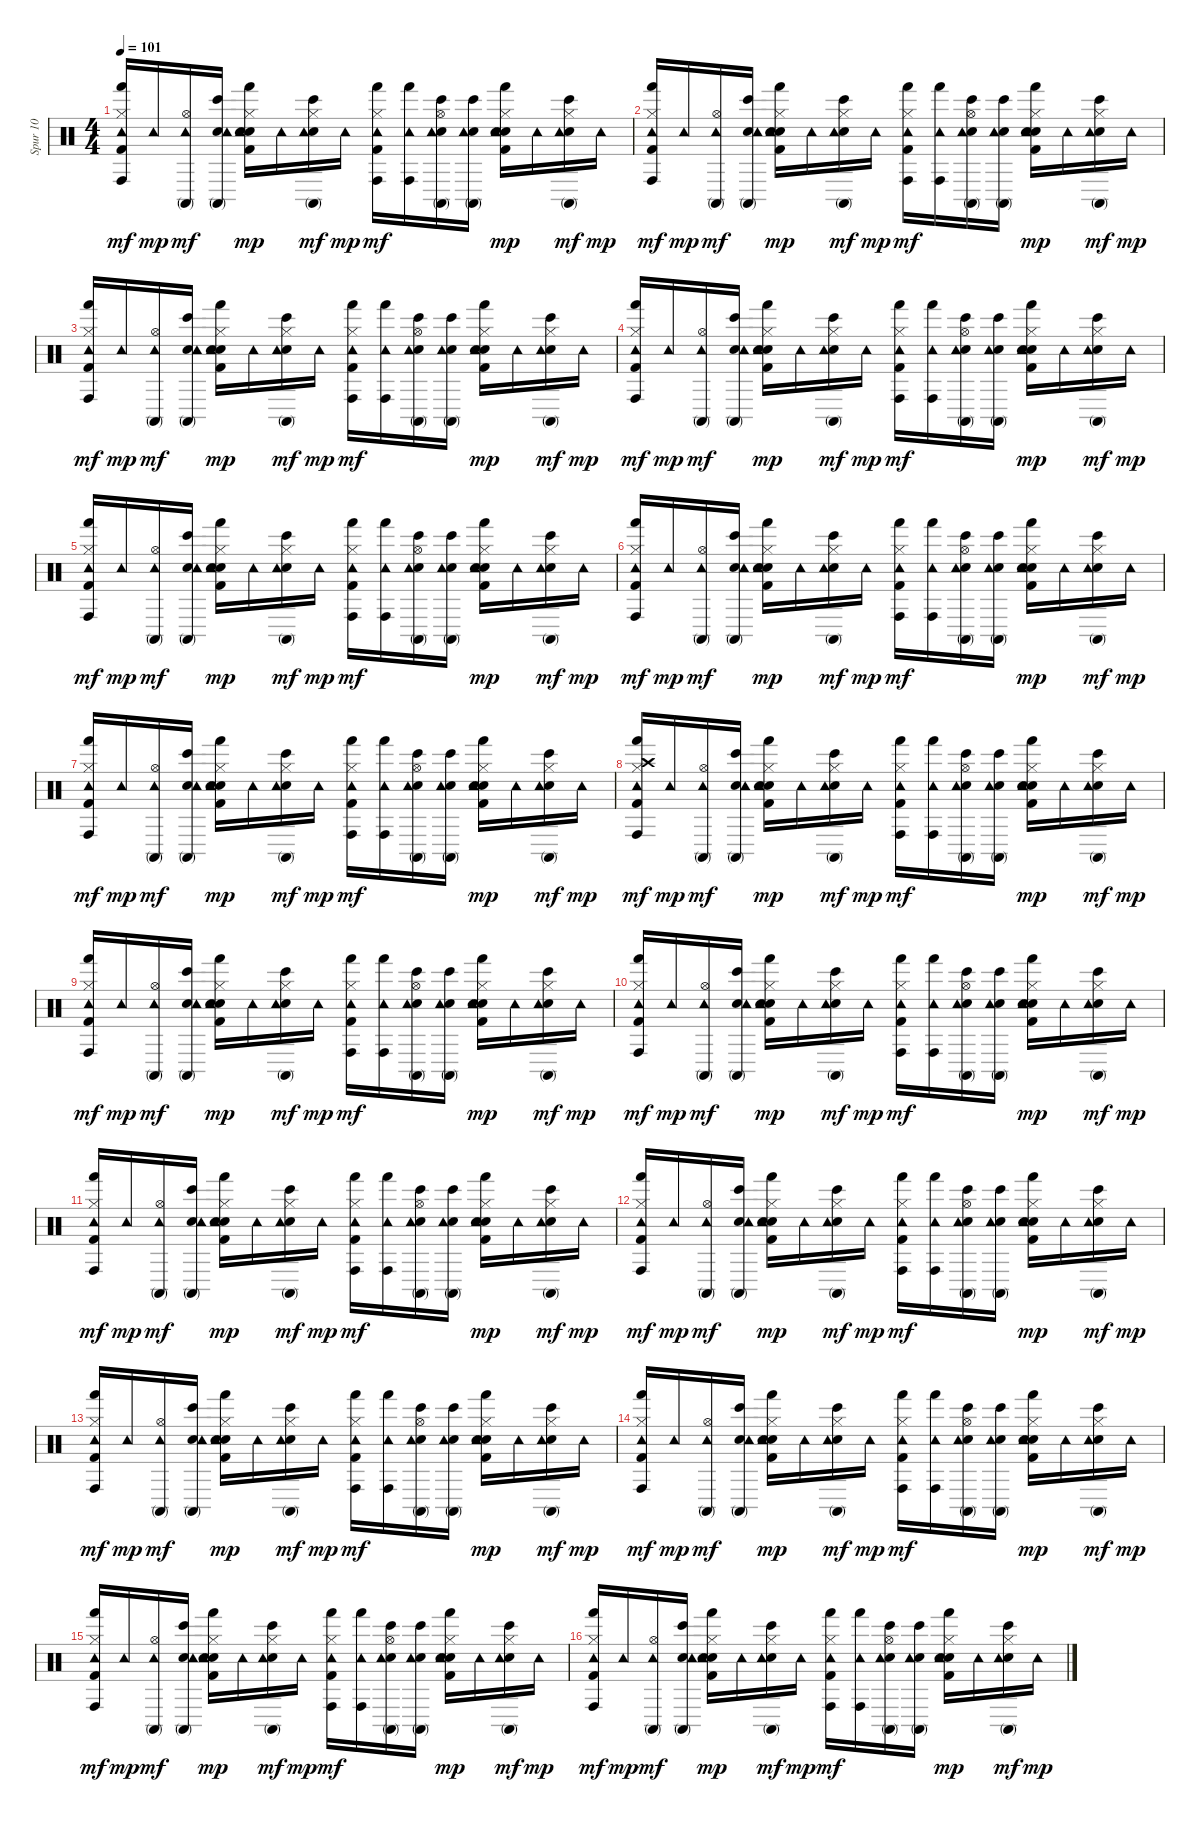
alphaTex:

\track ("Spur 10" "Spur 10") {instrument percussion}
\staff {score}
\articulation defaults
\ts (4 4)
\tempo 101
\clef neutral
\ks c
("Kick (hit) 2" "Hi-Hat (closed)" "Hand (hit)" "Tambourine (hit)" "Conga high (hit)").16{dy mf} "Tambourine (hit)".16{dy mp} ("Hi-Hat (open)" "Tambourine (hit)" "Conga high (mute)").16{dy mf} ("Hand Clap (hit)" "Bongo High (hit)" "Tambourine (hit)" "Conga high (mute)").16 ("Kick (hit) 2" "Snare (hit) 2" "Hi-Hat (closed)" "Hand Clap (hit)" "Hand (hit)" "Tambourine (hit)").16{dy mp} "Tambourine (hit)".16 ("Hi-Hat (closed)" "Hand Clap (hit)" "Bongo High (hit)" "Tambourine (hit)" "Conga high (mute)").16{dy mf} "Tambourine (hit)".16{dy mp} ("Kick (hit) 2" "Hi-Hat (closed)" "Hand (hit)" "Tambourine (hit)" "Conga high (hit)").16{dy mf} ("Hand (hit)" "Tambourine (hit)" "Conga high (hit)").16 ("Hi-Hat (open)" "Hand Clap (hit)" "Bongo High (hit)" "Tambourine (hit)" "Conga high (mute)").16 ("Hand Clap (hit)" "Bongo High (hit)" "Tambourine (hit)" "Conga high (mute)").16 ("Kick (hit) 2" "Snare (hit) 2" "Hi-Hat (closed)" "Hand Clap (hit)" "Hand (hit)" "Tambourine (hit)").16{dy mp} "Tambourine (hit)".16 ("Hi-Hat (closed)" "Hand Clap (hit)" "Bongo High (hit)" "Tambourine (hit)" "Conga high (mute)").16{dy mf} "Tambourine (hit)".16{dy mp} |
("Kick (hit) 2" "Hi-Hat (closed)" "Hand (hit)" "Tambourine (hit)" "Conga high (hit)").16{dy mf} "Tambourine (hit)".16{dy mp} ("Hi-Hat (open)" "Tambourine (hit)" "Conga high (mute)").16{dy mf} ("Hand Clap (hit)" "Bongo High (hit)" "Tambourine (hit)" "Conga high (mute)").16 ("Kick (hit) 2" "Snare (hit) 2" "Hi-Hat (closed)" "Hand Clap (hit)" "Hand (hit)" "Tambourine (hit)").16{dy mp} "Tambourine (hit)".16 ("Hi-Hat (closed)" "Hand Clap (hit)" "Bongo High (hit)" "Tambourine (hit)" "Conga high (mute)").16{dy mf} "Tambourine (hit)".16{dy mp} ("Kick (hit) 2" "Hi-Hat (closed)" "Hand (hit)" "Tambourine (hit)" "Conga high (hit)").16{dy mf} ("Hand (hit)" "Tambourine (hit)" "Conga high (hit)").16 ("Hi-Hat (open)" "Hand Clap (hit)" "Bongo High (hit)" "Tambourine (hit)" "Conga high (mute)").16 ("Hand Clap (hit)" "Bongo High (hit)" "Tambourine (hit)" "Conga high (mute)").16 ("Kick (hit) 2" "Snare (hit) 2" "Hi-Hat (closed)" "Hand Clap (hit)" "Hand (hit)" "Tambourine (hit)").16{dy mp} "Tambourine (hit)".16 ("Hi-Hat (closed)" "Hand Clap (hit)" "Bongo High (hit)" "Tambourine (hit)" "Conga high (mute)").16{dy mf} "Tambourine (hit)".16{dy mp} |
("Kick (hit) 2" "Hi-Hat (closed)" "Hand (hit)" "Tambourine (hit)" "Conga high (hit)").16{dy mf} "Tambourine (hit)".16{dy mp} ("Hi-Hat (open)" "Tambourine (hit)" "Conga high (mute)").16{dy mf} ("Hand Clap (hit)" "Bongo High (hit)" "Tambourine (hit)" "Conga high (mute)").16 ("Kick (hit) 2" "Snare (hit) 2" "Hi-Hat (closed)" "Hand Clap (hit)" "Hand (hit)" "Tambourine (hit)").16{dy mp} "Tambourine (hit)".16 ("Hi-Hat (closed)" "Hand Clap (hit)" "Bongo High (hit)" "Tambourine (hit)" "Conga high (mute)").16{dy mf} "Tambourine (hit)".16{dy mp} ("Kick (hit) 2" "Hi-Hat (closed)" "Hand (hit)" "Tambourine (hit)" "Conga high (hit)").16{dy mf} ("Hand (hit)" "Tambourine (hit)" "Conga high (hit)").16 ("Hi-Hat (open)" "Hand Clap (hit)" "Bongo High (hit)" "Tambourine (hit)" "Conga high (mute)").16 ("Hand Clap (hit)" "Bongo High (hit)" "Tambourine (hit)" "Conga high (mute)").16 ("Kick (hit) 2" "Snare (hit) 2" "Hi-Hat (closed)" "Hand Clap (hit)" "Hand (hit)" "Tambourine (hit)").16{dy mp} "Tambourine (hit)".16 ("Hi-Hat (closed)" "Hand Clap (hit)" "Bongo High (hit)" "Tambourine (hit)" "Conga high (mute)").16{dy mf} "Tambourine (hit)".16{dy mp} |
("Kick (hit) 2" "Hi-Hat (closed)" "Hand (hit)" "Tambourine (hit)" "Conga high (hit)").16{dy mf} "Tambourine (hit)".16{dy mp} ("Hi-Hat (open)" "Tambourine (hit)" "Conga high (mute)").16{dy mf} ("Hand Clap (hit)" "Bongo High (hit)" "Tambourine (hit)" "Conga high (mute)").16 ("Kick (hit) 2" "Snare (hit) 2" "Hi-Hat (closed)" "Hand Clap (hit)" "Hand (hit)" "Tambourine (hit)").16{dy mp} "Tambourine (hit)".16 ("Hi-Hat (closed)" "Hand Clap (hit)" "Bongo High (hit)" "Tambourine (hit)" "Conga high (mute)").16{dy mf} "Tambourine (hit)".16{dy mp} ("Kick (hit) 2" "Hi-Hat (closed)" "Hand (hit)" "Tambourine (hit)" "Conga high (hit)").16{dy mf} ("Hand (hit)" "Tambourine (hit)" "Conga high (hit)").16 ("Hi-Hat (open)" "Hand Clap (hit)" "Bongo High (hit)" "Tambourine (hit)" "Conga high (mute)").16 ("Hand Clap (hit)" "Bongo High (hit)" "Tambourine (hit)" "Conga high (mute)").16 ("Kick (hit) 2" "Snare (hit) 2" "Hi-Hat (closed)" "Hand Clap (hit)" "Hand (hit)" "Tambourine (hit)").16{dy mp} "Tambourine (hit)".16 ("Hi-Hat (closed)" "Hand Clap (hit)" "Bongo High (hit)" "Tambourine (hit)" "Conga high (mute)").16{dy mf} "Tambourine (hit)".16{dy mp} |
("Kick (hit) 2" "Hi-Hat (closed)" "Hand (hit)" "Tambourine (hit)" "Conga high (hit)").16{dy mf} "Tambourine (hit)".16{dy mp} ("Hi-Hat (open)" "Tambourine (hit)" "Conga high (mute)").16{dy mf} ("Hand Clap (hit)" "Bongo High (hit)" "Tambourine (hit)" "Conga high (mute)").16 ("Kick (hit) 2" "Snare (hit) 2" "Hi-Hat (closed)" "Hand Clap (hit)" "Hand (hit)" "Tambourine (hit)").16{dy mp} "Tambourine (hit)".16 ("Hi-Hat (closed)" "Hand Clap (hit)" "Bongo High (hit)" "Tambourine (hit)" "Conga high (mute)").16{dy mf} "Tambourine (hit)".16{dy mp} ("Kick (hit) 2" "Hi-Hat (closed)" "Hand (hit)" "Tambourine (hit)" "Conga high (hit)").16{dy mf} ("Hand (hit)" "Tambourine (hit)" "Conga high (hit)").16 ("Hi-Hat (open)" "Hand Clap (hit)" "Bongo High (hit)" "Tambourine (hit)" "Conga high (mute)").16 ("Hand Clap (hit)" "Bongo High (hit)" "Tambourine (hit)" "Conga high (mute)").16 ("Kick (hit) 2" "Snare (hit) 2" "Hi-Hat (closed)" "Hand Clap (hit)" "Hand (hit)" "Tambourine (hit)").16{dy mp} "Tambourine (hit)".16 ("Hi-Hat (closed)" "Hand Clap (hit)" "Bongo High (hit)" "Tambourine (hit)" "Conga high (mute)").16{dy mf} "Tambourine (hit)".16{dy mp} |
("Kick (hit) 2" "Hi-Hat (closed)" "Hand (hit)" "Tambourine (hit)" "Conga high (hit)").16{dy mf} "Tambourine (hit)".16{dy mp} ("Hi-Hat (open)" "Tambourine (hit)" "Conga high (mute)").16{dy mf} ("Hand Clap (hit)" "Bongo High (hit)" "Tambourine (hit)" "Conga high (mute)").16 ("Kick (hit) 2" "Snare (hit) 2" "Hi-Hat (closed)" "Hand Clap (hit)" "Hand (hit)" "Tambourine (hit)").16{dy mp} "Tambourine (hit)".16 ("Hi-Hat (closed)" "Hand Clap (hit)" "Bongo High (hit)" "Tambourine (hit)" "Conga high (mute)").16{dy mf} "Tambourine (hit)".16{dy mp} ("Kick (hit) 2" "Hi-Hat (closed)" "Hand (hit)" "Tambourine (hit)" "Conga high (hit)").16{dy mf} ("Hand (hit)" "Tambourine (hit)" "Conga high (hit)").16 ("Hi-Hat (open)" "Hand Clap (hit)" "Bongo High (hit)" "Tambourine (hit)" "Conga high (mute)").16 ("Hand Clap (hit)" "Bongo High (hit)" "Tambourine (hit)" "Conga high (mute)").16 ("Kick (hit) 2" "Snare (hit) 2" "Hi-Hat (closed)" "Hand Clap (hit)" "Hand (hit)" "Tambourine (hit)").16{dy mp} "Tambourine (hit)".16 ("Hi-Hat (closed)" "Hand Clap (hit)" "Bongo High (hit)" "Tambourine (hit)" "Conga high (mute)").16{dy mf} "Tambourine (hit)".16{dy mp} |
("Kick (hit) 2" "Hi-Hat (closed)" "Hand (hit)" "Tambourine (hit)" "Conga high (hit)").16{dy mf} "Tambourine (hit)".16{dy mp} ("Hi-Hat (open)" "Tambourine (hit)" "Conga high (mute)").16{dy mf} ("Hand Clap (hit)" "Bongo High (hit)" "Tambourine (hit)" "Conga high (mute)").16 ("Kick (hit) 2" "Snare (hit) 2" "Hi-Hat (closed)" "Hand Clap (hit)" "Hand (hit)" "Tambourine (hit)").16{dy mp} "Tambourine (hit)".16 ("Hi-Hat (closed)" "Hand Clap (hit)" "Bongo High (hit)" "Tambourine (hit)" "Conga high (mute)").16{dy mf} "Tambourine (hit)".16{dy mp} ("Kick (hit) 2" "Hi-Hat (closed)" "Hand (hit)" "Tambourine (hit)" "Conga high (hit)").16{dy mf} ("Hand (hit)" "Tambourine (hit)" "Conga high (hit)").16 ("Hi-Hat (open)" "Hand Clap (hit)" "Bongo High (hit)" "Tambourine (hit)" "Conga high (mute)").16 ("Hand Clap (hit)" "Bongo High (hit)" "Tambourine (hit)" "Conga high (mute)").16 ("Kick (hit) 2" "Snare (hit) 2" "Hi-Hat (closed)" "Hand Clap (hit)" "Hand (hit)" "Tambourine (hit)").16{dy mp} "Tambourine (hit)".16 ("Hi-Hat (closed)" "Hand Clap (hit)" "Bongo High (hit)" "Tambourine (hit)" "Conga high (mute)").16{dy mf} "Tambourine (hit)".16{dy mp} |
("Kick (hit) 2" "Hi-Hat (closed)" "Crash high (hit)" "Hand (hit)" "Tambourine (hit)" "Conga high (hit)").16{dy mf} "Tambourine (hit)".16{dy mp} ("Hi-Hat (open)" "Tambourine (hit)" "Conga high (mute)").16{dy mf} ("Hand Clap (hit)" "Bongo High (hit)" "Tambourine (hit)" "Conga high (mute)").16 ("Kick (hit) 2" "Snare (hit) 2" "Hi-Hat (closed)" "Hand Clap (hit)" "Hand (hit)" "Tambourine (hit)").16{dy mp} "Tambourine (hit)".16 ("Hi-Hat (closed)" "Hand Clap (hit)" "Bongo High (hit)" "Tambourine (hit)" "Conga high (mute)").16{dy mf} "Tambourine (hit)".16{dy mp} ("Kick (hit) 2" "Hi-Hat (closed)" "Hand (hit)" "Tambourine (hit)" "Conga high (hit)").16{dy mf} ("Hand (hit)" "Tambourine (hit)" "Conga high (hit)").16 ("Hi-Hat (open)" "Hand Clap (hit)" "Bongo High (hit)" "Tambourine (hit)" "Conga high (mute)").16 ("Hand Clap (hit)" "Bongo High (hit)" "Tambourine (hit)" "Conga high (mute)").16 ("Kick (hit) 2" "Snare (hit) 2" "Hi-Hat (closed)" "Hand Clap (hit)" "Hand (hit)" "Tambourine (hit)").16{dy mp} "Tambourine (hit)".16 ("Hi-Hat (closed)" "Hand Clap (hit)" "Bongo High (hit)" "Tambourine (hit)" "Conga high (mute)").16{dy mf} "Tambourine (hit)".16{dy mp} |
("Kick (hit) 2" "Hi-Hat (closed)" "Hand (hit)" "Tambourine (hit)" "Conga high (hit)").16{dy mf} "Tambourine (hit)".16{dy mp} ("Hi-Hat (open)" "Tambourine (hit)" "Conga high (mute)").16{dy mf} ("Hand Clap (hit)" "Bongo High (hit)" "Tambourine (hit)" "Conga high (mute)").16 ("Kick (hit) 2" "Snare (hit) 2" "Hi-Hat (closed)" "Hand Clap (hit)" "Hand (hit)" "Tambourine (hit)").16{dy mp} "Tambourine (hit)".16 ("Hi-Hat (closed)" "Hand Clap (hit)" "Bongo High (hit)" "Tambourine (hit)" "Conga high (mute)").16{dy mf} "Tambourine (hit)".16{dy mp} ("Kick (hit) 2" "Hi-Hat (closed)" "Hand (hit)" "Tambourine (hit)" "Conga high (hit)").16{dy mf} ("Hand (hit)" "Tambourine (hit)" "Conga high (hit)").16 ("Hi-Hat (open)" "Hand Clap (hit)" "Bongo High (hit)" "Tambourine (hit)" "Conga high (mute)").16 ("Hand Clap (hit)" "Bongo High (hit)" "Tambourine (hit)" "Conga high (mute)").16 ("Kick (hit) 2" "Snare (hit) 2" "Hi-Hat (closed)" "Hand Clap (hit)" "Hand (hit)" "Tambourine (hit)").16{dy mp} "Tambourine (hit)".16 ("Hi-Hat (closed)" "Hand Clap (hit)" "Bongo High (hit)" "Tambourine (hit)" "Conga high (mute)").16{dy mf} "Tambourine (hit)".16{dy mp} |
("Kick (hit) 2" "Hi-Hat (closed)" "Hand (hit)" "Tambourine (hit)" "Conga high (hit)").16{dy mf} "Tambourine (hit)".16{dy mp} ("Hi-Hat (open)" "Tambourine (hit)" "Conga high (mute)").16{dy mf} ("Hand Clap (hit)" "Bongo High (hit)" "Tambourine (hit)" "Conga high (mute)").16 ("Kick (hit) 2" "Snare (hit) 2" "Hi-Hat (closed)" "Hand Clap (hit)" "Hand (hit)" "Tambourine (hit)").16{dy mp} "Tambourine (hit)".16 ("Hi-Hat (closed)" "Hand Clap (hit)" "Bongo High (hit)" "Tambourine (hit)" "Conga high (mute)").16{dy mf} "Tambourine (hit)".16{dy mp} ("Kick (hit) 2" "Hi-Hat (closed)" "Hand (hit)" "Tambourine (hit)" "Conga high (hit)").16{dy mf} ("Hand (hit)" "Tambourine (hit)" "Conga high (hit)").16 ("Hi-Hat (open)" "Hand Clap (hit)" "Bongo High (hit)" "Tambourine (hit)" "Conga high (mute)").16 ("Hand Clap (hit)" "Bongo High (hit)" "Tambourine (hit)" "Conga high (mute)").16 ("Kick (hit) 2" "Snare (hit) 2" "Hi-Hat (closed)" "Hand Clap (hit)" "Hand (hit)" "Tambourine (hit)").16{dy mp} "Tambourine (hit)".16 ("Hi-Hat (closed)" "Hand Clap (hit)" "Bongo High (hit)" "Tambourine (hit)" "Conga high (mute)").16{dy mf} "Tambourine (hit)".16{dy mp} |
("Kick (hit) 2" "Hi-Hat (closed)" "Hand (hit)" "Tambourine (hit)" "Conga high (hit)").16{dy mf} "Tambourine (hit)".16{dy mp} ("Hi-Hat (open)" "Tambourine (hit)" "Conga high (mute)").16{dy mf} ("Hand Clap (hit)" "Bongo High (hit)" "Tambourine (hit)" "Conga high (mute)").16 ("Kick (hit) 2" "Snare (hit) 2" "Hi-Hat (closed)" "Hand Clap (hit)" "Hand (hit)" "Tambourine (hit)").16{dy mp} "Tambourine (hit)".16 ("Hi-Hat (closed)" "Hand Clap (hit)" "Bongo High (hit)" "Tambourine (hit)" "Conga high (mute)").16{dy mf} "Tambourine (hit)".16{dy mp} ("Kick (hit) 2" "Hi-Hat (closed)" "Hand (hit)" "Tambourine (hit)" "Conga high (hit)").16{dy mf} ("Hand (hit)" "Tambourine (hit)" "Conga high (hit)").16 ("Hi-Hat (open)" "Hand Clap (hit)" "Bongo High (hit)" "Tambourine (hit)" "Conga high (mute)").16 ("Hand Clap (hit)" "Bongo High (hit)" "Tambourine (hit)" "Conga high (mute)").16 ("Kick (hit) 2" "Snare (hit) 2" "Hi-Hat (closed)" "Hand Clap (hit)" "Hand (hit)" "Tambourine (hit)").16{dy mp} "Tambourine (hit)".16 ("Hi-Hat (closed)" "Hand Clap (hit)" "Bongo High (hit)" "Tambourine (hit)" "Conga high (mute)").16{dy mf} "Tambourine (hit)".16{dy mp} |
("Kick (hit) 2" "Hi-Hat (closed)" "Hand (hit)" "Tambourine (hit)" "Conga high (hit)").16{dy mf} "Tambourine (hit)".16{dy mp} ("Hi-Hat (open)" "Tambourine (hit)" "Conga high (mute)").16{dy mf} ("Hand Clap (hit)" "Bongo High (hit)" "Tambourine (hit)" "Conga high (mute)").16 ("Kick (hit) 2" "Snare (hit) 2" "Hi-Hat (closed)" "Hand Clap (hit)" "Hand (hit)" "Tambourine (hit)").16{dy mp} "Tambourine (hit)".16 ("Hi-Hat (closed)" "Hand Clap (hit)" "Bongo High (hit)" "Tambourine (hit)" "Conga high (mute)").16{dy mf} "Tambourine (hit)".16{dy mp} ("Kick (hit) 2" "Hi-Hat (closed)" "Hand (hit)" "Tambourine (hit)" "Conga high (hit)").16{dy mf} ("Hand (hit)" "Tambourine (hit)" "Conga high (hit)").16 ("Hi-Hat (open)" "Hand Clap (hit)" "Bongo High (hit)" "Tambourine (hit)" "Conga high (mute)").16 ("Hand Clap (hit)" "Bongo High (hit)" "Tambourine (hit)" "Conga high (mute)").16 ("Kick (hit) 2" "Snare (hit) 2" "Hi-Hat (closed)" "Hand Clap (hit)" "Hand (hit)" "Tambourine (hit)").16{dy mp} "Tambourine (hit)".16 ("Hi-Hat (closed)" "Hand Clap (hit)" "Bongo High (hit)" "Tambourine (hit)" "Conga high (mute)").16{dy mf} "Tambourine (hit)".16{dy mp} |
("Kick (hit) 2" "Hi-Hat (closed)" "Hand (hit)" "Tambourine (hit)" "Conga high (hit)").16{dy mf} "Tambourine (hit)".16{dy mp} ("Hi-Hat (open)" "Tambourine (hit)" "Conga high (mute)").16{dy mf} ("Hand Clap (hit)" "Bongo High (hit)" "Tambourine (hit)" "Conga high (mute)").16 ("Kick (hit) 2" "Snare (hit) 2" "Hi-Hat (closed)" "Hand Clap (hit)" "Hand (hit)" "Tambourine (hit)").16{dy mp} "Tambourine (hit)".16 ("Hi-Hat (closed)" "Hand Clap (hit)" "Bongo High (hit)" "Tambourine (hit)" "Conga high (mute)").16{dy mf} "Tambourine (hit)".16{dy mp} ("Kick (hit) 2" "Hi-Hat (closed)" "Hand (hit)" "Tambourine (hit)" "Conga high (hit)").16{dy mf} ("Hand (hit)" "Tambourine (hit)" "Conga high (hit)").16 ("Hi-Hat (open)" "Hand Clap (hit)" "Bongo High (hit)" "Tambourine (hit)" "Conga high (mute)").16 ("Hand Clap (hit)" "Bongo High (hit)" "Tambourine (hit)" "Conga high (mute)").16 ("Kick (hit) 2" "Snare (hit) 2" "Hi-Hat (closed)" "Hand Clap (hit)" "Hand (hit)" "Tambourine (hit)").16{dy mp} "Tambourine (hit)".16 ("Hi-Hat (closed)" "Hand Clap (hit)" "Bongo High (hit)" "Tambourine (hit)" "Conga high (mute)").16{dy mf} "Tambourine (hit)".16{dy mp} |
("Kick (hit) 2" "Hi-Hat (closed)" "Hand (hit)" "Tambourine (hit)" "Conga high (hit)").16{dy mf} "Tambourine (hit)".16{dy mp} ("Hi-Hat (open)" "Tambourine (hit)" "Conga high (mute)").16{dy mf} ("Hand Clap (hit)" "Bongo High (hit)" "Tambourine (hit)" "Conga high (mute)").16 ("Kick (hit) 2" "Snare (hit) 2" "Hi-Hat (closed)" "Hand Clap (hit)" "Hand (hit)" "Tambourine (hit)").16{dy mp} "Tambourine (hit)".16 ("Hi-Hat (closed)" "Hand Clap (hit)" "Bongo High (hit)" "Tambourine (hit)" "Conga high (mute)").16{dy mf} "Tambourine (hit)".16{dy mp} ("Kick (hit) 2" "Hi-Hat (closed)" "Hand (hit)" "Tambourine (hit)" "Conga high (hit)").16{dy mf} ("Hand (hit)" "Tambourine (hit)" "Conga high (hit)").16 ("Hi-Hat (open)" "Hand Clap (hit)" "Bongo High (hit)" "Tambourine (hit)" "Conga high (mute)").16 ("Hand Clap (hit)" "Bongo High (hit)" "Tambourine (hit)" "Conga high (mute)").16 ("Kick (hit) 2" "Snare (hit) 2" "Hi-Hat (closed)" "Hand Clap (hit)" "Hand (hit)" "Tambourine (hit)").16{dy mp} "Tambourine (hit)".16 ("Hi-Hat (closed)" "Hand Clap (hit)" "Bongo High (hit)" "Tambourine (hit)" "Conga high (mute)").16{dy mf} "Tambourine (hit)".16{dy mp} |
("Kick (hit) 2" "Hi-Hat (closed)" "Hand (hit)" "Tambourine (hit)" "Conga high (hit)").16{dy mf} "Tambourine (hit)".16{dy mp} ("Hi-Hat (open)" "Tambourine (hit)" "Conga high (mute)").16{dy mf} ("Hand Clap (hit)" "Bongo High (hit)" "Tambourine (hit)" "Conga high (mute)").16 ("Kick (hit) 2" "Snare (hit) 2" "Hi-Hat (closed)" "Hand Clap (hit)" "Hand (hit)" "Tambourine (hit)").16{dy mp} "Tambourine (hit)".16 ("Hi-Hat (closed)" "Hand Clap (hit)" "Bongo High (hit)" "Tambourine (hit)" "Conga high (mute)").16{dy mf} "Tambourine (hit)".16{dy mp} ("Kick (hit) 2" "Hi-Hat (closed)" "Hand (hit)" "Tambourine (hit)" "Conga high (hit)").16{dy mf} ("Hand (hit)" "Tambourine (hit)" "Conga high (hit)").16 ("Hi-Hat (open)" "Hand Clap (hit)" "Bongo High (hit)" "Tambourine (hit)" "Conga high (mute)").16 ("Hand Clap (hit)" "Bongo High (hit)" "Tambourine (hit)" "Conga high (mute)").16 ("Kick (hit) 2" "Snare (hit) 2" "Hi-Hat (closed)" "Hand Clap (hit)" "Hand (hit)" "Tambourine (hit)").16{dy mp} "Tambourine (hit)".16 ("Hi-Hat (closed)" "Hand Clap (hit)" "Bongo High (hit)" "Tambourine (hit)" "Conga high (mute)").16{dy mf} "Tambourine (hit)".16{dy mp} |
("Kick (hit) 2" "Hi-Hat (closed)" "Hand (hit)" "Tambourine (hit)" "Conga high (hit)").16{dy mf} "Tambourine (hit)".16{dy mp} ("Hi-Hat (open)" "Tambourine (hit)" "Conga high (mute)").16{dy mf} ("Hand Clap (hit)" "Bongo High (hit)" "Tambourine (hit)" "Conga high (mute)").16 ("Kick (hit) 2" "Snare (hit) 2" "Hi-Hat (closed)" "Hand Clap (hit)" "Hand (hit)" "Tambourine (hit)").16{dy mp} "Tambourine (hit)".16 ("Hi-Hat (closed)" "Hand Clap (hit)" "Bongo High (hit)" "Tambourine (hit)" "Conga high (mute)").16{dy mf} "Tambourine (hit)".16{dy mp} ("Kick (hit) 2" "Hi-Hat (closed)" "Hand (hit)" "Tambourine (hit)" "Conga high (hit)").16{dy mf} ("Hand (hit)" "Tambourine (hit)" "Conga high (hit)").16 ("Hi-Hat (open)" "Hand Clap (hit)" "Bongo High (hit)" "Tambourine (hit)" "Conga high (mute)").16 ("Hand Clap (hit)" "Bongo High (hit)" "Tambourine (hit)" "Conga high (mute)").16 ("Kick (hit) 2" "Snare (hit) 2" "Hi-Hat (closed)" "Hand Clap (hit)" "Hand (hit)" "Tambourine (hit)").16{dy mp} "Tambourine (hit)".16 ("Hi-Hat (closed)" "Hand Clap (hit)" "Bongo High (hit)" "Tambourine (hit)" "Conga high (mute)").16{dy mf} "Tambourine (hit)".16{dy mp}
